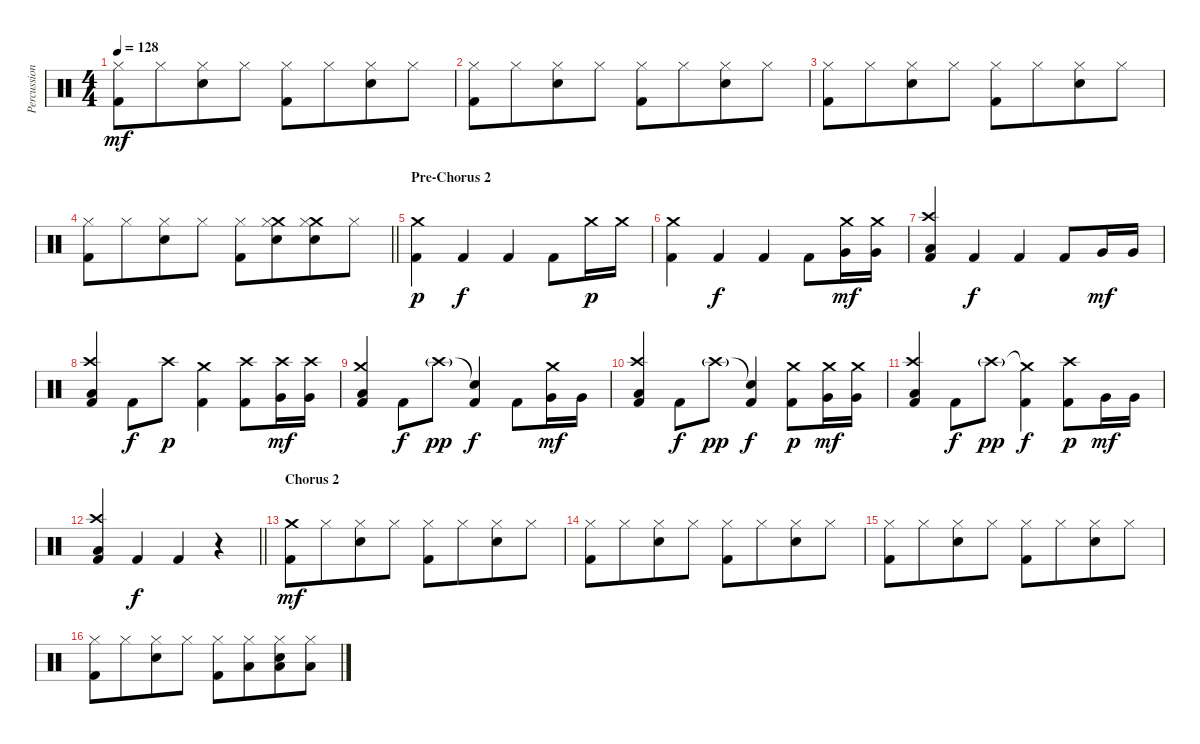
\track ("Percussion" "Percussion") {instrument percussion}
\staff {score}
\articulation defaults
\ts (4 4)
\tempo 128
\clef neutral
\ks c
("Hi-Hat (closed)" "Kick (hit) 2").8{dy mf} "Hi-Hat (closed)".8{beam merge} ("Hi-Hat (closed)" "Snare (hit) 2").8 "Hi-Hat (closed)".8 ("Hi-Hat (closed)" "Kick (hit) 2").8 "Hi-Hat (closed)".8{beam merge} ("Hi-Hat (closed)" "Snare (hit) 2").8 "Hi-Hat (closed)".8 |
("Hi-Hat (closed)" "Kick (hit) 2").8 "Hi-Hat (closed)".8{beam merge} ("Hi-Hat (closed)" "Snare (hit) 2").8 "Hi-Hat (closed)".8 ("Hi-Hat (closed)" "Kick (hit) 2").8 "Hi-Hat (closed)".8{beam merge} ("Hi-Hat (closed)" "Snare (hit) 2").8 "Hi-Hat (closed)".8 |
("Hi-Hat (closed)" "Kick (hit) 2").8 "Hi-Hat (closed)".8{beam merge} ("Hi-Hat (closed)" "Snare (hit) 2").8 "Hi-Hat (closed)".8 ("Hi-Hat (closed)" "Kick (hit) 2").8 "Hi-Hat (closed)".8{beam merge} ("Hi-Hat (closed)" "Snare (hit) 2").8 "Hi-Hat (closed)".8 |
\barLineRight lightlight
("Hi-Hat (closed)" "Kick (hit) 2").8 "Hi-Hat (closed)".8{beam merge} ("Hi-Hat (closed)" "Snare (hit) 2").8 "Hi-Hat (closed)".8 ("Hi-Hat (closed)" "Kick (hit) 2").8 ("Crash medium (hit)" "Hi-Hat (closed)" "Snare (hit) 2").8{beam merge} ("Crash medium (hit)" "Hi-Hat (closed)" "Snare (hit) 2").8 "Hi-Hat (closed)".8 |
\section ("" "Pre-Chorus 2")
("Crash medium (hit)" "Kick (hit) 2").4{dy p} "Kick (hit) 2".4{dy f} "Kick (hit) 2".4 "Kick (hit) 2".8 "Crash medium (hit)".16{dy p} "Crash medium (hit)".16 |
("Crash medium (hit)" "Kick (hit) 2").4 "Kick (hit) 2".4{dy f} "Kick (hit) 2".4 "Kick (hit) 2".8 ("Crash medium (hit)" "Very Low Tom (hit)").16{dy mf} ("Crash medium (hit)" "Very Low Tom (hit)").16 |
("Crash high (hit)" "Low Floor Tom (hit)" "Kick (hit) 2").4 "Kick (hit) 2".4{dy f} "Kick (hit) 2".4 "Kick (hit) 2".8 "Very Low Tom (hit)".16{dy mf} "Very Low Tom (hit)".16 |
("Crash high (hit)" "Low Floor Tom (hit)" "Kick (hit) 2").4 "Kick (hit) 2".8{dy f} "Crash high (hit)".8{dy p} ("Crash medium (hit)" "Kick (hit) 2").4 ("Crash high (hit)" "Kick (hit) 2").8 ("Crash high (hit)" "Very Low Tom (hit)").16{dy mf} ("Crash high (hit)" "Very Low Tom (hit)").16 |
("Crash medium (hit)" "Low Floor Tom (hit)" "Kick (hit) 2").4 "Kick (hit) 2".8{dy f} "Crash high (hit)"{g}.8{dy pp} ("Snare (hit)"{t} "Kick (hit) 2").4{dy f} "Kick (hit) 2".8 ("Crash medium (hit)" "Very Low Tom (hit)").16{dy mf} "Very Low Tom (hit)".16 |
("Crash high (hit)" "Low Floor Tom (hit)" "Kick (hit) 2").4 "Kick (hit) 2".8{dy f} "Crash high (hit)"{g}.8{dy pp} ("Snare (hit)"{t} "Kick (hit) 2").4{dy f} ("Crash medium (hit)" "Kick (hit) 2").8{dy p} ("Crash medium (hit)" "Very Low Tom (hit)").16{dy mf} ("Crash medium (hit)" "Very Low Tom (hit)").16 |
("Crash high (hit)" "Low Floor Tom (hit)" "Kick (hit) 2").4 "Kick (hit) 2".8{dy f} "Crash high (hit)"{g}.8{dy pp} ("Crash medium (hit)"{t} "Kick (hit) 2").4{dy f} ("Crash high (hit)" "Kick (hit) 2").8{dy p} "Very Low Tom (hit)".16{dy mf} "Very Low Tom (hit)".16 |
\barLineRight lightlight
("Crash high (hit)" "Low Floor Tom (hit)" "Kick (hit) 2").4 "Kick (hit) 2".4{dy f} "Kick (hit) 2".4 r.4 |
\section ("" "Chorus 2")
("Crash medium (hit)" "Kick (hit) 2").8{dy mf} "Hi-Hat (closed)".8{beam merge} ("Hi-Hat (closed)" "Snare (hit) 2").8 "Hi-Hat (closed)".8 ("Hi-Hat (closed)" "Kick (hit) 2").8 "Hi-Hat (closed)".8{beam merge} ("Hi-Hat (closed)" "Snare (hit) 2").8 "Hi-Hat (closed)".8 |
("Hi-Hat (closed)" "Kick (hit) 2").8 "Hi-Hat (closed)".8{beam merge} ("Hi-Hat (closed)" "Snare (hit) 2").8 "Hi-Hat (closed)".8 ("Hi-Hat (closed)" "Kick (hit) 2").8 "Hi-Hat (closed)".8{beam merge} ("Hi-Hat (closed)" "Snare (hit) 2").8 "Hi-Hat (closed)".8 |
("Hi-Hat (closed)" "Kick (hit) 2").8 "Hi-Hat (closed)".8{beam merge} ("Hi-Hat (closed)" "Snare (hit) 2").8 "Hi-Hat (closed)".8 ("Hi-Hat (closed)" "Kick (hit) 2").8 "Hi-Hat (closed)".8{beam merge} ("Hi-Hat (closed)" "Snare (hit) 2").8 "Hi-Hat (closed)".8 |
("Hi-Hat (closed)" "Kick (hit) 2").8 "Hi-Hat (closed)".8{beam merge} ("Hi-Hat (closed)" "Snare (hit) 2").8 "Hi-Hat (closed)".8 ("Hi-Hat (closed)" "Kick (hit) 2").8 ("Hi-Hat (closed)" "Low Tom (hit)").8{beam merge} ("Hi-Hat (closed)" "Low Tom (hit)" "Snare (hit) 2").8 ("Hi-Hat (closed)" "Low Tom (hit)").8
